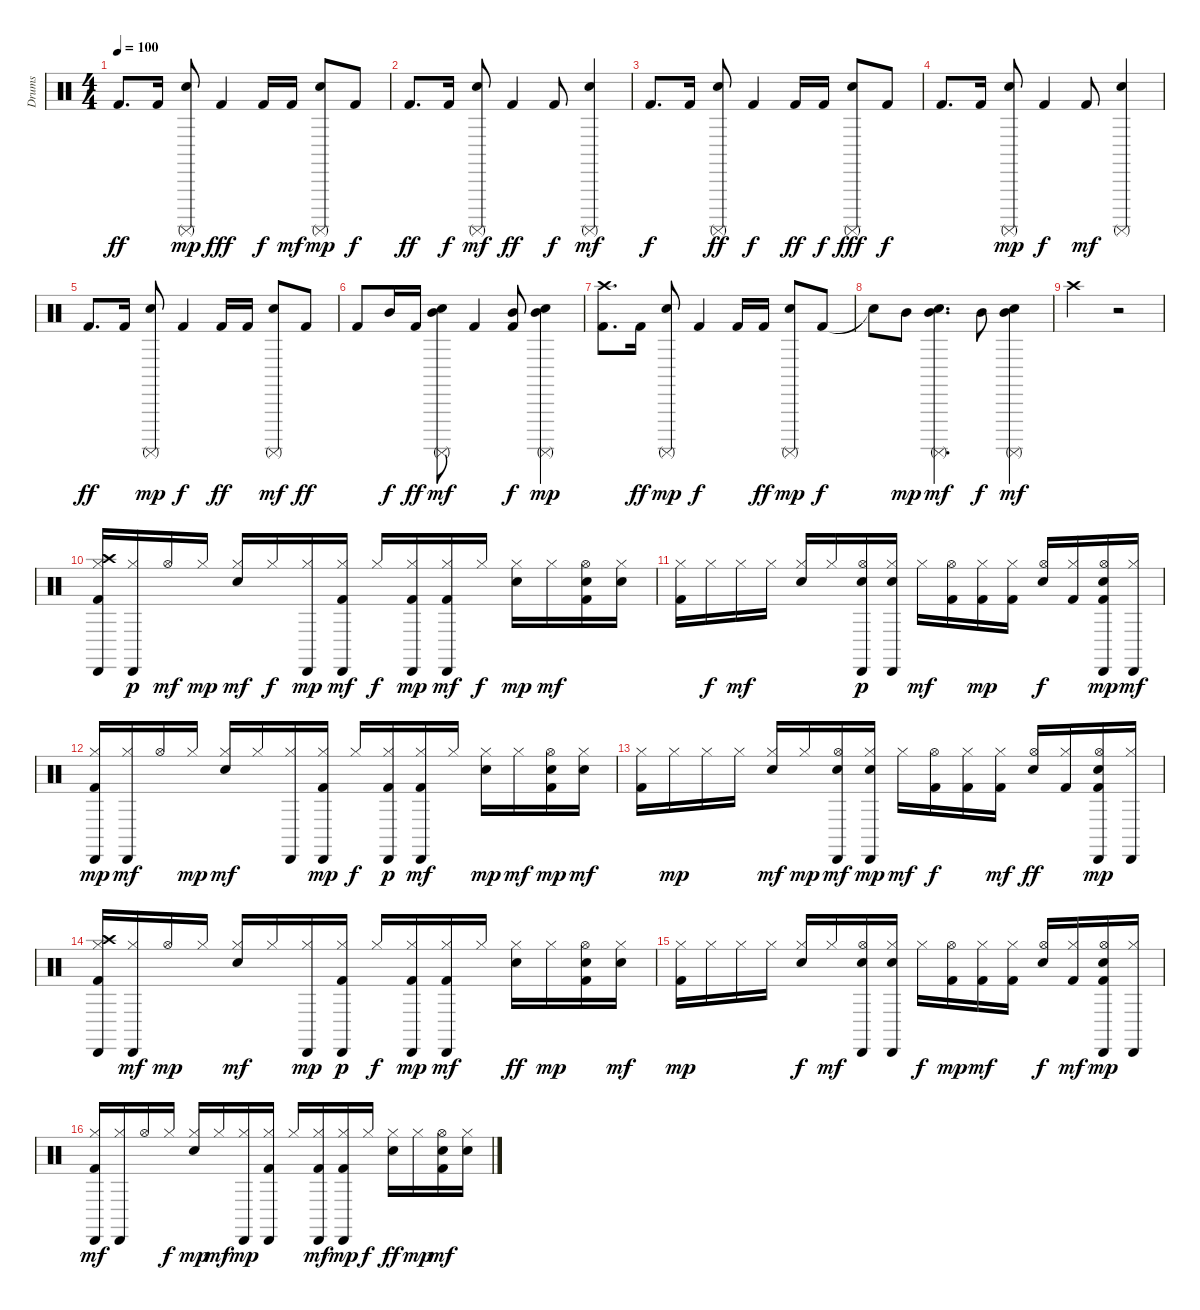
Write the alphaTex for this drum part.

\track ("Drums" "Drums") {instrument percussion}
\staff {score}
\articulation defaults
\ts (4 4)
\tempo 100
\clef neutral
\ks c "Kick (hit) 2".8{d dy ff} "Kick (hit) 2".16
("Snare (hit) 2" "Surdo (mute)").8{dy mp} "Kick (hit) 2".4{dy fff} "Kick (hit) 2".16{dy f} "Kick (hit) 2".16{dy mf} ("Snare (hit) 2" "Surdo (mute)").8{dy mp} "Kick (hit) 2".8{dy f} |
"Kick (hit) 2".8{d dy ff} "Kick (hit) 2".16{dy f} ("Snare (hit) 2" "Surdo (mute)").8{dy mf} "Kick (hit) 2".4{dy ff} "Kick (hit) 2".8{dy f} ("Snare (hit) 2" "Surdo (mute)").4{dy mf} |
"Kick (hit) 2".8{d dy f} "Kick (hit) 2".16 ("Snare (hit) 2" "Surdo (mute)").8{dy ff} "Kick (hit) 2".4{dy f} "Kick (hit) 2".16{dy ff} "Kick (hit) 2".16{dy f} ("Snare (hit) 2" "Surdo (mute)").8{dy fff} "Kick (hit) 2".8{dy f} |
"Kick (hit) 2".8{d} "Kick (hit) 2".16 ("Snare (hit) 2" "Surdo (mute)").8{dy mp} "Kick (hit) 2".4{dy f} "Kick (hit) 2".8{dy mf} ("Snare (hit) 2" "Surdo (mute)").4 |
"Kick (hit) 2".8{d dy ff} "Kick (hit) 2".16 ("Snare (hit) 2" "Surdo (mute)").8{dy mp} "Kick (hit) 2".4{dy f} "Kick (hit) 2".16{dy ff} "Kick (hit) 2".16 ("Snare (hit) 2" "Surdo (mute)").8{dy mf} "Kick (hit) 2".8{dy ff} |
"Kick (hit) 2".8 "Mid Tom (hit)".16{dy f} "Kick (hit) 2".16{dy ff} ("Snare (hit) 2" "Mid Tom (hit)" "Surdo (mute)").8{dy mf} "Kick (hit) 2".4 ("Kick (hit) 2" "Mid Tom (hit)").8{dy f} ("Snare (hit) 2" "Mid Tom (hit)" "Surdo (mute)").4{dy mp} |
("Kick (hit) 2" "Crash high (hit)").8{d} "Kick (hit) 2".16{dy ff} ("Snare (hit) 2" "Surdo (mute)").8{dy mp} "Kick (hit) 2".4{dy f} "Kick (hit) 2".16 "Kick (hit) 2".16{dy ff} ("Snare (hit) 2" "Surdo (mute)").8{dy mp} "Kick (hit) 2".8{dy f} |
"Snare (hit)"{t}.8 "Mid Tom (hit)".8{dy mp} ("Snare (hit) 2" "Mid Tom (hit)" "Surdo (mute)").4{d dy mf} "Mid Tom (hit)".8{dy f} ("Snare (hit) 2" "Mid Tom (hit)" "Surdo (mute)").4{dy mf} |
"Crash high (hit)".2 r.2 |
("Kick (hit) 2" "Hi-Hat (closed)" "Crash high (hit)" "Cabasa (hit)").16 ("Hi-Hat (closed)" "Cabasa (hit)").16{dy p} "Hi-Hat (open)".16{dy mf} "Hi-Hat (closed)".16{dy mp} ("Snare (hit) 2" "Hi-Hat (closed)").16{dy mf} "Hi-Hat (closed)".16{dy f} ("Hi-Hat (closed)" "Cabasa (hit)").16{dy mp} ("Kick (hit) 2" "Hi-Hat (closed)" "Cabasa (hit)").16{dy mf} "Hi-Hat (closed)".16{dy f} ("Kick (hit) 2" "Hi-Hat (closed)" "Cabasa (hit)").16{dy mp} ("Kick (hit) 2" "Hi-Hat (closed)" "Cabasa (hit)").16{dy mf} "Hi-Hat (closed)".16{dy f} ("Snare (hit) 2" "Hi-Hat (closed)").16{dy mp} "Hi-Hat (closed)".16{dy mf} ("Kick (hit) 2" "Hand Clap (hit)" "Hi-Hat (open)").16 ("Hand Clap (hit)" "Hi-Hat (closed)").16 |
("Kick (hit) 2" "Hi-Hat (closed)").16 "Hi-Hat (closed)".16{dy f} "Hi-Hat (closed)".16{dy mf} "Hi-Hat (closed)".16 ("Snare (hit) 2" "Hi-Hat (closed)").16 "Hi-Hat (closed)".16 ("Hand Clap (hit)" "Hi-Hat (open)" "Cabasa (hit)").16{dy p} ("Hand Clap (hit)" "Hi-Hat (closed)" "Cabasa (hit)").16 "Hi-Hat (closed)".16{dy mf} ("Kick (hit) 2" "Hi-Hat (open)").16 ("Kick (hit) 2" "Hi-Hat (closed)").16{dy mp} ("Kick (hit) 2" "Hi-Hat (closed)").16 ("Snare (hit) 2" "Hi-Hat (open)").16{dy f} ("Kick (hit) 2" "Hi-Hat (closed)").16 ("Kick (hit) 2" "Hand Clap (hit)" "Hi-Hat (open)" "Cabasa (hit)").16{dy mp} ("Hi-Hat (closed)" "Cabasa (hit)").16{dy mf} |
("Kick (hit) 2" "Hi-Hat (closed)" "Cabasa (hit)").16{dy mp} ("Hi-Hat (closed)" "Cabasa (hit)").16{dy mf} "Hi-Hat (open)".16 "Hi-Hat (closed)".16{dy mp} ("Snare (hit) 2" "Hi-Hat (closed)").16{dy mf} "Hi-Hat (closed)".16 ("Hi-Hat (closed)" "Cabasa (hit)").16 ("Kick (hit) 2" "Hi-Hat (closed)" "Cabasa (hit)").16{dy mp} "Hi-Hat (closed)".16{dy f} ("Kick (hit) 2" "Hi-Hat (closed)" "Cabasa (hit)").16{dy p} ("Kick (hit) 2" "Hi-Hat (closed)" "Cabasa (hit)").16{dy mf} "Hi-Hat (closed)".16 ("Snare (hit) 2" "Hi-Hat (closed)").16{dy mp} "Hi-Hat (closed)".16{dy mf} ("Kick (hit) 2" "Hand Clap (hit)" "Hi-Hat (open)").16{dy mp} ("Hand Clap (hit)" "Hi-Hat (closed)").16{dy mf} |
("Kick (hit) 2" "Hi-Hat (closed)").16 "Hi-Hat (closed)".16{dy mp} "Hi-Hat (closed)".16 "Hi-Hat (closed)".16 ("Snare (hit) 2" "Hi-Hat (closed)").16{dy mf} "Hi-Hat (closed)".16{dy mp} ("Hand Clap (hit)" "Hi-Hat (open)" "Cabasa (hit)").16{dy mf} ("Hand Clap (hit)" "Hi-Hat (closed)" "Cabasa (hit)").16{dy mp} "Hi-Hat (closed)".16{dy mf} ("Kick (hit) 2" "Hi-Hat (open)").16{dy f} ("Kick (hit) 2" "Hi-Hat (closed)").16 ("Kick (hit) 2" "Hi-Hat (closed)").16{dy mf} ("Snare (hit) 2" "Hi-Hat (open)").16{dy ff} ("Kick (hit) 2" "Hi-Hat (closed)").16 ("Kick (hit) 2" "Hand Clap (hit)" "Hi-Hat (open)" "Cabasa (hit)").16{dy mp} ("Hi-Hat (closed)" "Cabasa (hit)").16 |
("Kick (hit) 2" "Hi-Hat (closed)" "Crash high (hit)" "Cabasa (hit)").16 ("Hi-Hat (closed)" "Cabasa (hit)").16{dy mf} "Hi-Hat (open)".16{dy mp} "Hi-Hat (closed)".16 ("Snare (hit) 2" "Hi-Hat (closed)").16{dy mf} "Hi-Hat (closed)".16 ("Hi-Hat (closed)" "Cabasa (hit)").16{dy mp} ("Kick (hit) 2" "Hi-Hat (closed)" "Cabasa (hit)").16{dy p} "Hi-Hat (closed)".16{dy f} ("Kick (hit) 2" "Hi-Hat (closed)" "Cabasa (hit)").16{dy mp} ("Kick (hit) 2" "Hi-Hat (closed)" "Cabasa (hit)").16{dy mf} "Hi-Hat (closed)".16 ("Snare (hit) 2" "Hi-Hat (closed)").16{dy ff} "Hi-Hat (closed)".16{dy mp} ("Kick (hit) 2" "Hand Clap (hit)" "Hi-Hat (open)").16 ("Hand Clap (hit)" "Hi-Hat (closed)").16{dy mf} |
("Kick (hit) 2" "Hi-Hat (closed)").16{dy mp} "Hi-Hat (closed)".16 "Hi-Hat (closed)".16 "Hi-Hat (closed)".16 ("Snare (hit) 2" "Hi-Hat (closed)").16{dy f} "Hi-Hat (closed)".16{dy mf} ("Hand Clap (hit)" "Hi-Hat (open)" "Cabasa (hit)").16 ("Hand Clap (hit)" "Hi-Hat (closed)" "Cabasa (hit)").16 "Hi-Hat (closed)".16{dy f} ("Kick (hit) 2" "Hi-Hat (open)").16{dy mp} ("Kick (hit) 2" "Hi-Hat (closed)").16{dy mf} ("Kick (hit) 2" "Hi-Hat (closed)").16 ("Snare (hit) 2" "Hi-Hat (open)").16{dy f} ("Kick (hit) 2" "Hi-Hat (closed)").16{dy mf} ("Kick (hit) 2" "Hand Clap (hit)" "Hi-Hat (open)" "Cabasa (hit)").16{dy mp} ("Hi-Hat (closed)" "Cabasa (hit)").16 |
("Kick (hit) 2" "Hi-Hat (closed)" "Cabasa (hit)").16{dy mf} ("Hi-Hat (closed)" "Cabasa (hit)").16 "Hi-Hat (open)".16 "Hi-Hat (closed)".16{dy f} ("Snare (hit) 2" "Hi-Hat (closed)").16{dy mp} "Hi-Hat (closed)".16{dy mf} ("Hi-Hat (closed)" "Cabasa (hit)").16{dy mp} ("Kick (hit) 2" "Hi-Hat (closed)" "Cabasa (hit)").16 "Hi-Hat (closed)".16 ("Kick (hit) 2" "Hi-Hat (closed)" "Cabasa (hit)").16{dy mf} ("Kick (hit) 2" "Hi-Hat (closed)" "Cabasa (hit)").16{dy mp} "Hi-Hat (closed)".16{dy f} ("Snare (hit) 2" "Hi-Hat (closed)").16{dy ff} "Hi-Hat (closed)".16{dy mp} ("Kick (hit) 2" "Hand Clap (hit)" "Hi-Hat (open)").16{dy mf} ("Hand Clap (hit)" "Hi-Hat (closed)").16
